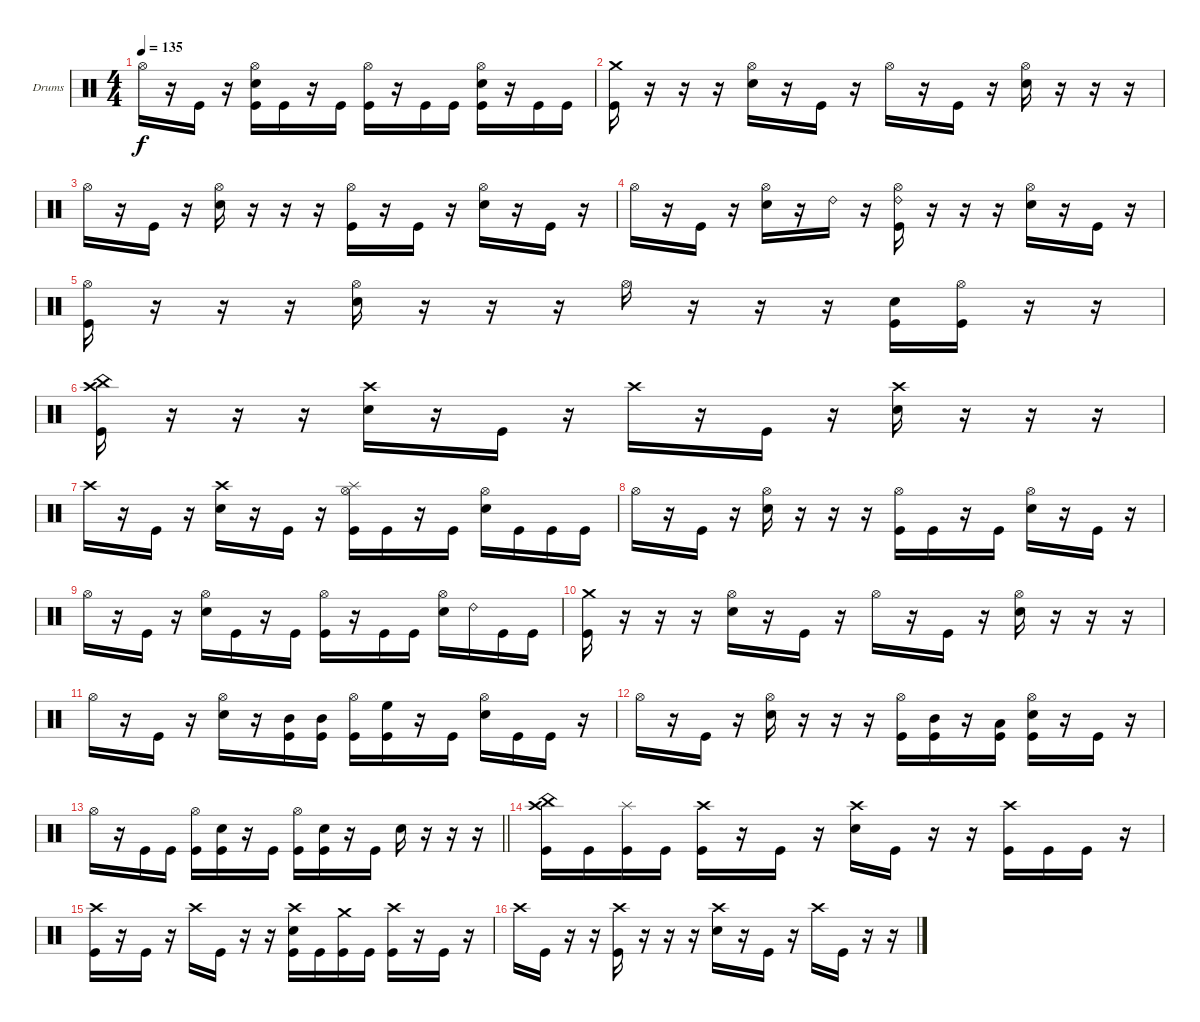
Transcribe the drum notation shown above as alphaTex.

\bracketExtendMode groupsimilarinstruments
\firstSystemTrackNameOrientation horizontal
\otherSystemsTrackNameOrientation horizontal
\track ("Drumkit" "Drums") {instrument percussion}
\staff {score}
\articulation defaults
\ts (4 4)
\tempo 135
\clef neutral
\ks c "Hi-Hat (open)".16{dy f}
r.16 "Kick (hit)".16 r.16 ("Hi-Hat (open)" "Snare (hit) 2" "Kick (hit)").16 "Kick (hit)".16 r.16 "Kick (hit)".16 ("Hi-Hat (open)" "Kick (hit)").16 r.16 "Kick (hit)".16 "Kick (hit)".16 ("Hi-Hat (open)" "Snare (hit) 2" "Kick (hit)").16 r.16 "Kick (hit)".16 "Kick (hit)".16 |
("Crash medium (hit)" "Kick (hit)").16 r.16 r.16 r.16 ("Hi-Hat (open)" "Snare (hit) 2").16 r.16 "Kick (hit)".16 r.16 "Hi-Hat (open)".16 r.16 "Kick (hit)".16 r.16 ("Hi-Hat (open)" "Snare (hit) 2").16 r.16 r.16 r.16 |
"Hi-Hat (open)".16 r.16 "Kick (hit)".16 r.16 ("Hi-Hat (open)" "Snare (hit) 2").16 r.16 r.16 r.16 ("Hi-Hat (open)" "Kick (hit)").16 r.16 "Kick (hit)".16 r.16 ("Hi-Hat (open)" "Snare (hit) 2").16 r.16 "Kick (hit)".16 r.16 |
"Hi-Hat (open)".16 r.16 "Kick (hit)".16 r.16 ("Hi-Hat (open)" "Snare (hit) 2").16 r.16 "Ride (bell) 2".16 r.16 ("Hi-Hat (open)" "Ride (bell) 2" "Kick (hit)").16 r.16 r.16 r.16 ("Hi-Hat (open)" "Snare (hit) 2").16 r.16 "Kick (hit)".16 r.16 |
("Hi-Hat (open)" "Kick (hit)").16 r.16 r.16 r.16 ("Hi-Hat (open)" "Snare (hit) 2").16 r.16 r.16 r.16 "Hi-Hat (open)".16 r.16 r.16 r.16 ("Snare (hit) 2" "Kick (hit)").16 ("Hi-Hat (open)" "Kick (hit)").16 r.16 r.16 |
("China (hit)" "Crash high (hit)" "Kick (hit)").16 r.16 r.16 r.16 ("Crash high (hit)" "Snare (hit) 2").16 r.16 "Kick (hit)".16 r.16 "Crash high (hit)".16 r.16 "Kick (hit)".16 r.16 ("Crash high (hit)" "Snare (hit) 2").16 r.16 r.16 r.16 |
"Crash high (hit)".16 r.16 "Kick (hit)".16 r.16 ("Crash high (hit)" "Snare (hit) 2").16 r.16 "Kick (hit)".16 r.16 ("Hi-Hat (open)" "Splash (hit)" "Kick (hit)").16 "Kick (hit)".16 r.16 "Kick (hit)".16 ("Hi-Hat (open)" "Snare (hit) 2").16 "Kick (hit)".16 "Kick (hit)".16 "Kick (hit)".16 |
"Hi-Hat (open)".16 r.16 "Kick (hit)".16 r.16 ("Hi-Hat (open)" "Snare (hit) 2").16 r.16 r.16 r.16 ("Hi-Hat (open)" "Kick (hit)").16 "Kick (hit)".16 r.16 "Kick (hit)".16 ("Hi-Hat (open)" "Snare (hit) 2").16 r.16 "Kick (hit)".16 r.16 |
"Hi-Hat (open)".16 r.16 "Kick (hit)".16 r.16 ("Hi-Hat (open)" "Snare (hit) 2").16 "Kick (hit)".16 r.16 "Kick (hit)".16 ("Hi-Hat (open)" "Kick (hit)").16 r.16 "Kick (hit)".16 "Kick (hit)".16 ("Hi-Hat (open)" "Snare (hit) 2").16 "Ride (bell) 2".16 "Kick (hit)".16 "Kick (hit)".16 |
("Crash medium (hit)" "Kick (hit)").16 r.16 r.16 r.16 ("Hi-Hat (open)" "Snare (hit) 2").16 r.16 "Kick (hit)".16 r.16 "Hi-Hat (open)".16 r.16 "Kick (hit)".16 r.16 ("Hi-Hat (open)" "Snare (hit) 2").16 r.16 r.16 r.16 |
"Hi-Hat (open)".16 r.16 "Kick (hit)".16 r.16 ("Hi-Hat (open)" "Snare (hit) 2").16 r.16 ("Mid Tom (hit)" "Kick (hit)").16 ("Mid Tom (hit)" "Kick (hit)").16 ("Hi-Hat (open)" "Kick (hit)").16 ("High Floor Tom (hit)" "Kick (hit)").16 r.16 "Kick (hit)".16 ("Hi-Hat (open)" "Snare (hit) 2").16 "Kick (hit)".16 "Kick (hit)".16 r.16 |
"Hi-Hat (open)".16 r.16 "Kick (hit)".16 r.16 ("Hi-Hat (open)" "Snare (hit) 2").16 r.16 r.16 r.16 ("Hi-Hat (open)" "Kick (hit)").16 ("Mid Tom (hit)" "Kick (hit)").16 r.16 ("Low Tom (hit)" "Kick (hit)").16 ("Hi-Hat (open)" "Snare (hit) 2" "Kick (hit)").16 r.16 "Kick (hit)".16 r.16 |
\barLineRight lightlight "Hi-Hat (open)".16
r.16 "Kick (hit)".16 "Kick (hit)".16 ("Hi-Hat (open)" "Kick (hit)").16 ("Snare (hit) 2" "Kick (hit)").16 r.16 "Kick (hit)".16 ("Hi-Hat (open)" "Kick (hit)").16 ("Snare (hit) 2" "Kick (hit)").16 r.16 "Kick (hit)".16 "Snare (hit) 2".16 r.16 r.16 r.16 |
\section ("" "")
("Crash high (hit)" "China (hit)" "Kick (hit)").16 "Kick (hit)".16 ("Splash (hit)" "Kick (hit)").16 "Kick (hit)".16 ("Crash high (hit)" "Kick (hit)").16 r.16 "Kick (hit)".16 r.16 ("Crash high (hit)" "Snare (hit) 2").16 "Kick (hit)".16 r.16 r.16 ("Crash high (hit)" "Kick (hit)").16 "Kick (hit)".16 "Kick (hit)".16 r.16 |
("Crash high (hit)" "Kick (hit)").16 r.16 "Kick (hit)".16 r.16 "Crash high (hit)".16 "Kick (hit)".16 r.16 r.16 ("Crash high (hit)" "Snare (hit) 2" "Kick (hit)").16 "Kick (hit)".16 ("Crash medium (hit)" "Kick (hit)").16 "Kick (hit)".16 ("Crash high (hit)" "Kick (hit)").16 r.16 "Kick (hit)".16 r.16 |
"Crash high (hit)".16 "Kick (hit)".16 r.16 r.16 ("Crash high (hit)" "Kick (hit)").16 r.16 r.16 r.16 ("Crash high (hit)" "Snare (hit) 2").16 r.16 "Kick (hit)".16 r.16 "Crash high (hit)".16 "Kick (hit)".16 r.16 r.16
